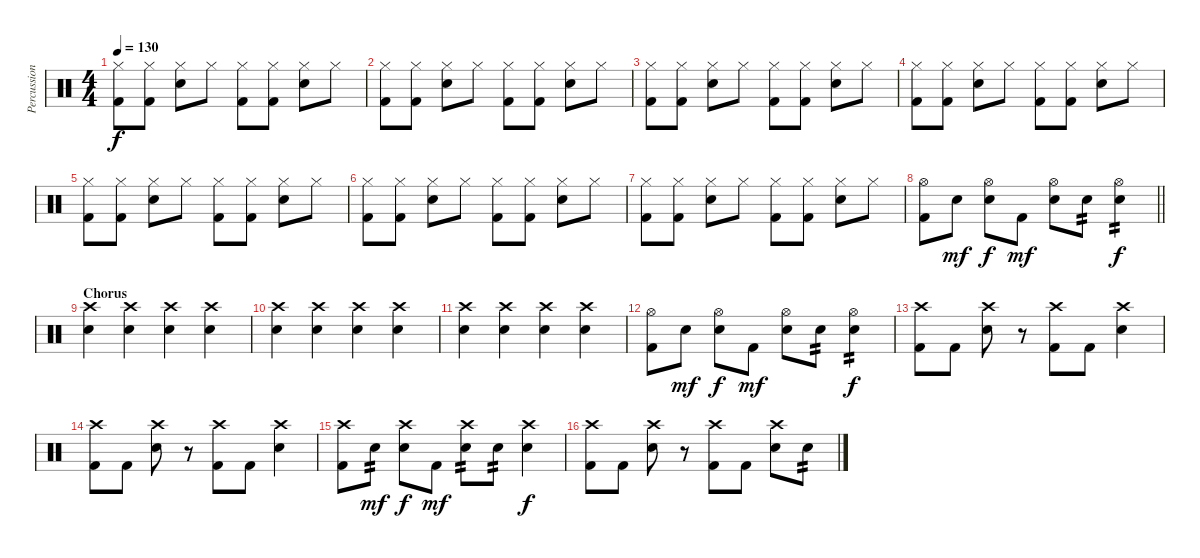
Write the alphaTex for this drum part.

\track ("Percussion" "Percussion") {instrument percussion}
\staff {score}
\articulation defaults
\ts (4 4)
\tempo 130
\clef neutral
\ks c
("Hi-Hat (closed)" "Kick (hit) 2").8{dy f} ("Hi-Hat (closed)" "Kick (hit) 2").8 ("Hi-Hat (closed)" "Electric Snare (hit)").8 "Hi-Hat (closed)".8 ("Hi-Hat (closed)" "Kick (hit) 2").8 ("Hi-Hat (closed)" "Kick (hit) 2").8 ("Hi-Hat (closed)" "Electric Snare (hit)").8 "Hi-Hat (closed)".8 |
("Hi-Hat (closed)" "Kick (hit) 2").8 ("Hi-Hat (closed)" "Kick (hit) 2").8 ("Hi-Hat (closed)" "Electric Snare (hit)").8 "Hi-Hat (closed)".8 ("Hi-Hat (closed)" "Kick (hit) 2").8 ("Hi-Hat (closed)" "Kick (hit) 2").8 ("Hi-Hat (closed)" "Electric Snare (hit)").8 "Hi-Hat (closed)".8 |
("Hi-Hat (closed)" "Kick (hit) 2").8 ("Hi-Hat (closed)" "Kick (hit) 2").8 ("Hi-Hat (closed)" "Electric Snare (hit)").8 "Hi-Hat (closed)".8 ("Hi-Hat (closed)" "Kick (hit) 2").8 ("Hi-Hat (closed)" "Kick (hit) 2").8 ("Hi-Hat (closed)" "Electric Snare (hit)").8 "Hi-Hat (closed)".8 |
("Hi-Hat (closed)" "Kick (hit) 2").8 ("Hi-Hat (closed)" "Kick (hit) 2").8 ("Hi-Hat (closed)" "Electric Snare (hit)").8 "Hi-Hat (closed)".8 ("Hi-Hat (closed)" "Kick (hit) 2").8 ("Hi-Hat (closed)" "Kick (hit) 2").8 ("Hi-Hat (closed)" "Electric Snare (hit)").8 "Hi-Hat (closed)".8 |
("Hi-Hat (closed)" "Kick (hit) 2").8 ("Hi-Hat (closed)" "Kick (hit) 2").8 ("Hi-Hat (closed)" "Electric Snare (hit)").8 "Hi-Hat (closed)".8 ("Hi-Hat (closed)" "Kick (hit) 2").8 ("Hi-Hat (closed)" "Kick (hit) 2").8 ("Hi-Hat (closed)" "Electric Snare (hit)").8 "Hi-Hat (closed)".8 |
("Hi-Hat (closed)" "Kick (hit) 2").8 ("Hi-Hat (closed)" "Kick (hit) 2").8 ("Hi-Hat (closed)" "Electric Snare (hit)").8 "Hi-Hat (closed)".8 ("Hi-Hat (closed)" "Kick (hit) 2").8 ("Hi-Hat (closed)" "Kick (hit) 2").8 ("Hi-Hat (closed)" "Electric Snare (hit)").8 "Hi-Hat (closed)".8 |
("Hi-Hat (closed)" "Kick (hit) 2").8 ("Hi-Hat (closed)" "Kick (hit) 2").8 ("Hi-Hat (closed)" "Electric Snare (hit)").8 "Hi-Hat (closed)".8 ("Hi-Hat (closed)" "Kick (hit) 2").8 ("Hi-Hat (closed)" "Kick (hit) 2").8 ("Hi-Hat (closed)" "Electric Snare (hit)").8 "Hi-Hat (closed)".8 |
\barLineRight lightlight
("Hi-Hat (open)" "Kick (hit) 2").8 "Electric Snare (hit)".8{dy mf} ("Hi-Hat (open)" "Electric Snare (hit)").8{dy f} "Kick (hit) 2".8{dy mf} ("Hi-Hat (open)" "Electric Snare (hit)").8 "Electric Snare (hit)".8{tp 2} ("Hi-Hat (open)" "Electric Snare (hit)").4{tp 2 dy f} |
\section ("" "Chorus")
("Crash high (hit)" "Electric Snare (hit)").4 ("Crash high (hit)" "Electric Snare (hit)").4 ("Crash high (hit)" "Electric Snare (hit)").4 ("Crash high (hit)" "Electric Snare (hit)").4 |
("Crash high (hit)" "Electric Snare (hit)").4 ("Crash high (hit)" "Electric Snare (hit)").4 ("Crash high (hit)" "Electric Snare (hit)").4 ("Crash high (hit)" "Electric Snare (hit)").4 |
("Crash high (hit)" "Electric Snare (hit)").4 ("Crash high (hit)" "Electric Snare (hit)").4 ("Crash high (hit)" "Electric Snare (hit)").4 ("Crash high (hit)" "Electric Snare (hit)").4 |
("Hi-Hat (open)" "Kick (hit) 2").8 "Electric Snare (hit)".8{dy mf} ("Hi-Hat (open)" "Electric Snare (hit)").8{dy f} "Kick (hit) 2".8{dy mf} ("Hi-Hat (open)" "Electric Snare (hit)").8 "Electric Snare (hit)".8{tp 2} ("Hi-Hat (open)" "Electric Snare (hit)").4{tp 2 dy f} |
("Crash high (hit)" "Kick (hit) 2").8 "Kick (hit) 2".8 ("Crash high (hit)" "Electric Snare (hit)").8 r.8 ("Crash high (hit)" "Kick (hit) 2").8 "Kick (hit) 2".8 ("Crash high (hit)" "Electric Snare (hit)").4 |
("Crash high (hit)" "Kick (hit) 2").8 "Kick (hit) 2".8 ("Crash high (hit)" "Electric Snare (hit)").8 r.8 ("Crash high (hit)" "Kick (hit) 2").8 "Kick (hit) 2".8 ("Crash high (hit)" "Electric Snare (hit)").4 |
("Crash high (hit)" "Kick (hit) 2").8 "Electric Snare (hit)".8{tp 2 dy mf} ("Crash high (hit)" "Electric Snare (hit)").8{dy f} "Kick (hit) 2".8{dy mf} ("Crash high (hit)" "Electric Snare (hit)").8{tp 2} "Electric Snare (hit)".8{tp 2} ("Crash high (hit)" "Electric Snare (hit)").4{dy f} |
("Crash high (hit)" "Kick (hit) 2").8 "Kick (hit) 2".8 ("Crash high (hit)" "Electric Snare (hit)").8 r.8 ("Crash high (hit)" "Kick (hit) 2").8 "Kick (hit) 2".8 ("Crash high (hit)" "Electric Snare (hit)").8 "Electric Snare (hit)".8{tp 2}
